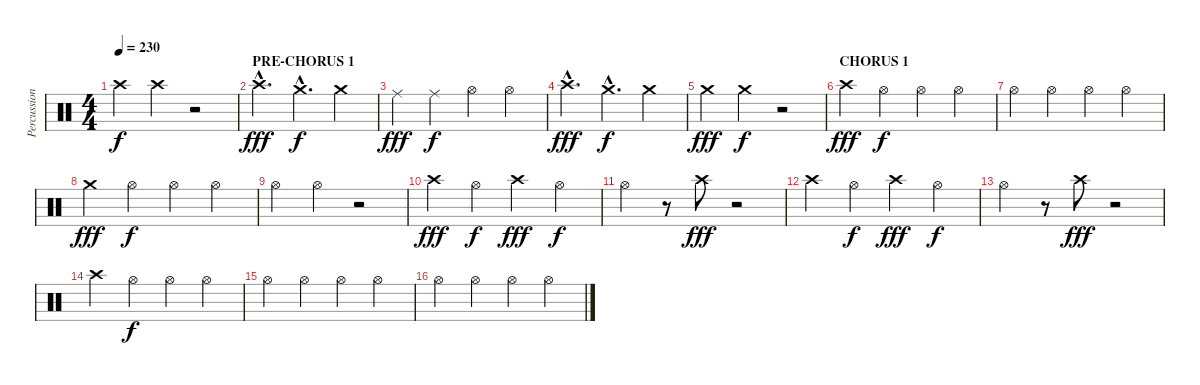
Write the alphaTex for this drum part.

\track ("Percussions" "Percussion") {instrument percussion}
\staff {score}
\articulation defaults
\ts (4 4)
\tempo 230
\clef neutral
\ks c "Crash high (hit)".4{dy f} "Crash high (hit)".4
r.2 |
\section ("" "PRE-CHORUS 1")
"Crash high (hit)"{hac}.4{d dy fff} "Crash medium (hit)"{hac}.4{d dy f} "Crash medium (hit)".4 |
"Ride (middle)".4{dy fff} "Ride (middle)".4{dy f} "Hi-Hat (open)".4 "Hi-Hat (open)".4 |
"Crash high (hit)"{hac}.4{d dy fff} "Crash medium (hit)"{hac}.4{d dy f} "Crash medium (hit)".4 |
"Crash medium (hit)".4{dy fff} "Crash medium (hit)".4{dy f} r.2 |
\section ("" "CHORUS 1")
"Crash high (hit)".4{dy fff} "Hi-Hat (open)".4{dy f} "Hi-Hat (open)".4 "Hi-Hat (open)".4 |
"Hi-Hat (open)".4 "Hi-Hat (open)".4 "Hi-Hat (open)".4 "Hi-Hat (open)".4 |
"Crash medium (hit)".4{dy fff} "Hi-Hat (open)".4{dy f} "Hi-Hat (open)".4 "Hi-Hat (open)".4 |
"Hi-Hat (open)".4 "Hi-Hat (open)".4 r.2 |
"Crash high (hit)".4{dy fff} "Hi-Hat (open)".4{dy f} "Crash high (hit)".4{dy fff} "Hi-Hat (open)".4{dy f} |
"Hi-Hat (open)".4 r.8 "Crash high (hit)".8{dy fff} r.2 |
"Crash high (hit)".4 "Hi-Hat (open)".4{dy f} "Crash high (hit)".4{dy fff} "Hi-Hat (open)".4{dy f} |
"Hi-Hat (open)".4 r.8 "Crash high (hit)".8{dy fff} r.2 |
"Crash high (hit)".4 "Hi-Hat (open)".4{dy f} "Hi-Hat (open)".4 "Hi-Hat (open)".4 |
"Hi-Hat (open)".4 "Hi-Hat (open)".4 "Hi-Hat (open)".4 "Hi-Hat (open)".4 |
"Hi-Hat (open)".4 "Hi-Hat (open)".4 "Hi-Hat (open)".4 "Hi-Hat (open)".4
